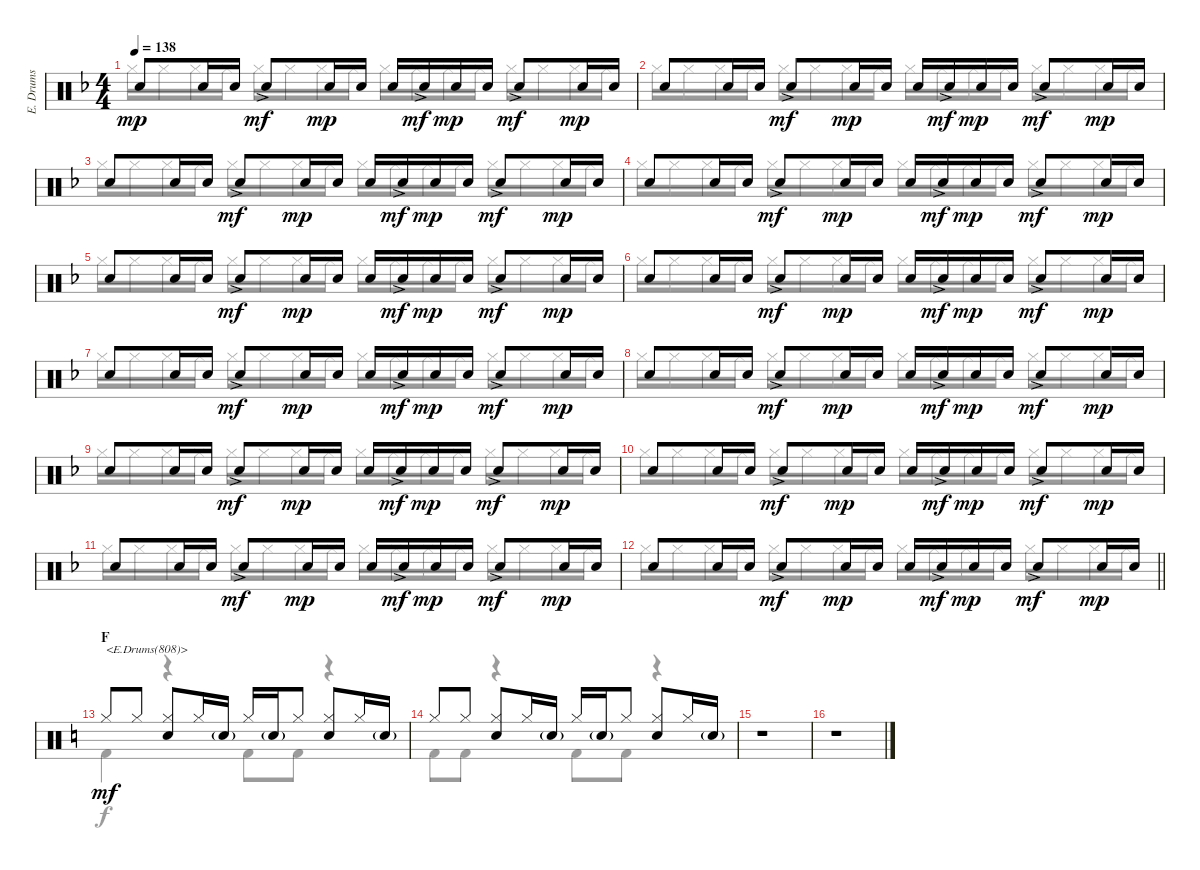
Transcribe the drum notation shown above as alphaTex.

\track ("E. Drums" "E. Drums") {instrument percussion}
\staff {score}
\articulation defaults
\voice
\ts (4 4)
\tempo 138
\clef neutral
\ks f "Electric Snare (hit)".8{dy mp} "Electric Snare (hit)".16 "Electric Snare (hit)".16 "Electric Snare (hit)"{ac}.8{dy mf} "Electric Snare (hit)".16{dy mp} "Electric Snare (hit)".16 "Electric Snare (hit)".16 "Electric Snare (hit)"{ac}.16{dy mf} "Electric Snare (hit)".16{dy mp} "Electric Snare (hit)".16 "Electric Snare (hit)"{ac}.8{dy mf} "Electric Snare (hit)".16{dy mp} "Electric Snare (hit)".16
|
"Electric Snare (hit)".8 "Electric Snare (hit)".16 "Electric Snare (hit)".16 "Electric Snare (hit)"{ac}.8{dy mf} "Electric Snare (hit)".16{dy mp} "Electric Snare (hit)".16 "Electric Snare (hit)".16 "Electric Snare (hit)"{ac}.16{dy mf} "Electric Snare (hit)".16{dy mp} "Electric Snare (hit)".16 "Electric Snare (hit)"{ac}.8{dy mf} "Electric Snare (hit)".16{dy mp} "Electric Snare (hit)".16 |
"Electric Snare (hit)".8 "Electric Snare (hit)".16 "Electric Snare (hit)".16 "Electric Snare (hit)"{ac}.8{dy mf} "Electric Snare (hit)".16{dy mp} "Electric Snare (hit)".16 "Electric Snare (hit)".16 "Electric Snare (hit)"{ac}.16{dy mf} "Electric Snare (hit)".16{dy mp} "Electric Snare (hit)".16 "Electric Snare (hit)"{ac}.8{dy mf} "Electric Snare (hit)".16{dy mp} "Electric Snare (hit)".16 |
"Electric Snare (hit)".8 "Electric Snare (hit)".16 "Electric Snare (hit)".16 "Electric Snare (hit)"{ac}.8{dy mf} "Electric Snare (hit)".16{dy mp} "Electric Snare (hit)".16 "Electric Snare (hit)".16 "Electric Snare (hit)"{ac}.16{dy mf} "Electric Snare (hit)".16{dy mp} "Electric Snare (hit)".16 "Electric Snare (hit)"{ac}.8{dy mf} "Electric Snare (hit)".16{dy mp} "Electric Snare (hit)".16 |
"Electric Snare (hit)".8 "Electric Snare (hit)".16 "Electric Snare (hit)".16 "Electric Snare (hit)"{ac}.8{dy mf} "Electric Snare (hit)".16{dy mp} "Electric Snare (hit)".16 "Electric Snare (hit)".16 "Electric Snare (hit)"{ac}.16{dy mf} "Electric Snare (hit)".16{dy mp} "Electric Snare (hit)".16 "Electric Snare (hit)"{ac}.8{dy mf} "Electric Snare (hit)".16{dy mp} "Electric Snare (hit)".16 |
"Electric Snare (hit)".8 "Electric Snare (hit)".16 "Electric Snare (hit)".16 "Electric Snare (hit)"{ac}.8{dy mf} "Electric Snare (hit)".16{dy mp} "Electric Snare (hit)".16 "Electric Snare (hit)".16 "Electric Snare (hit)"{ac}.16{dy mf} "Electric Snare (hit)".16{dy mp} "Electric Snare (hit)".16 "Electric Snare (hit)"{ac}.8{dy mf} "Electric Snare (hit)".16{dy mp} "Electric Snare (hit)".16 |
"Electric Snare (hit)".8 "Electric Snare (hit)".16 "Electric Snare (hit)".16 "Electric Snare (hit)"{ac}.8{dy mf} "Electric Snare (hit)".16{dy mp} "Electric Snare (hit)".16 "Electric Snare (hit)".16 "Electric Snare (hit)"{ac}.16{dy mf} "Electric Snare (hit)".16{dy mp} "Electric Snare (hit)".16 "Electric Snare (hit)"{ac}.8{dy mf} "Electric Snare (hit)".16{dy mp} "Electric Snare (hit)".16 |
"Electric Snare (hit)".8 "Electric Snare (hit)".16 "Electric Snare (hit)".16 "Electric Snare (hit)"{ac}.8{dy mf} "Electric Snare (hit)".16{dy mp} "Electric Snare (hit)".16 "Electric Snare (hit)".16 "Electric Snare (hit)"{ac}.16{dy mf} "Electric Snare (hit)".16{dy mp} "Electric Snare (hit)".16 "Electric Snare (hit)"{ac}.8{dy mf} "Electric Snare (hit)".16{dy mp} "Electric Snare (hit)".16 |
"Electric Snare (hit)".8 "Electric Snare (hit)".16 "Electric Snare (hit)".16 "Electric Snare (hit)"{ac}.8{dy mf} "Electric Snare (hit)".16{dy mp} "Electric Snare (hit)".16 "Electric Snare (hit)".16 "Electric Snare (hit)"{ac}.16{dy mf} "Electric Snare (hit)".16{dy mp} "Electric Snare (hit)".16 "Electric Snare (hit)"{ac}.8{dy mf} "Electric Snare (hit)".16{dy mp} "Electric Snare (hit)".16 |
"Electric Snare (hit)".8 "Electric Snare (hit)".16 "Electric Snare (hit)".16 "Electric Snare (hit)"{ac}.8{dy mf} "Electric Snare (hit)".16{dy mp} "Electric Snare (hit)".16 "Electric Snare (hit)".16 "Electric Snare (hit)"{ac}.16{dy mf} "Electric Snare (hit)".16{dy mp} "Electric Snare (hit)".16 "Electric Snare (hit)"{ac}.8{dy mf} "Electric Snare (hit)".16{dy mp} "Electric Snare (hit)".16 |
"Electric Snare (hit)".8 "Electric Snare (hit)".16 "Electric Snare (hit)".16 "Electric Snare (hit)"{ac}.8{dy mf} "Electric Snare (hit)".16{dy mp} "Electric Snare (hit)".16 "Electric Snare (hit)".16 "Electric Snare (hit)"{ac}.16{dy mf} "Electric Snare (hit)".16{dy mp} "Electric Snare (hit)".16 "Electric Snare (hit)"{ac}.8{dy mf} "Electric Snare (hit)".16{dy mp} "Electric Snare (hit)".16 |
\barLineRight lightlight "Electric Snare (hit)".8 "Electric Snare (hit)".16 "Electric Snare (hit)".16 "Electric Snare (hit)"{ac}.8{dy mf} "Electric Snare (hit)".16{dy mp} "Electric Snare (hit)".16 "Electric Snare (hit)".16 "Electric Snare (hit)"{ac}.16{dy mf} "Electric Snare (hit)".16{dy mp} "Electric Snare (hit)".16 "Electric Snare (hit)"{ac}.8{dy mf} "Electric Snare (hit)".16{dy mp} "Electric Snare (hit)".16
|
\section ("" "F")
\ks c "Hi-Hat (closed)".8{txt "<E.Drums(808)>" dy mf} "Hi-Hat (closed)".8
("Hi-Hat (closed)" "Electric Snare (hit)").8 "Hi-Hat (closed)".16 "Electric Snare (hit)"{g}.16 "Hi-Hat (closed)".16 "Electric Snare (hit)"{g}.16 "Hi-Hat (closed)".8 ("Hi-Hat (closed)" "Electric Snare (hit)").8 "Hi-Hat (closed)".16 "Electric Snare (hit)"{g}.16 |
"Hi-Hat (closed)".8 "Hi-Hat (closed)".8 ("Hi-Hat (closed)" "Electric Snare (hit)").8 "Hi-Hat (closed)".16 "Electric Snare (hit)"{g}.16 "Hi-Hat (closed)".16 "Electric Snare (hit)"{g}.16 "Hi-Hat (closed)".8 ("Hi-Hat (closed)" "Electric Snare (hit)").8 "Hi-Hat (closed)".16 "Electric Snare (hit)"{g}.16 |
r.1 |
r.1
\voice
\clef neutral
\ottava regular
\simile none
\ks f "Hi-Hat (closed)".16{dy mp} "Hi-Hat (closed)".16 "Hi-Hat (closed)".16 "Hi-Hat (closed)".16 "Hi-Hat (closed)".16 "Hi-Hat (closed)".16 "Hi-Hat (closed)".16 "Hi-Hat (closed)".16 "Hi-Hat (closed)".16 "Hi-Hat (closed)".16 "Hi-Hat (closed)".16 "Hi-Hat (closed)".16 "Hi-Hat (closed)".16 "Hi-Hat (closed)".16 "Hi-Hat (closed)".16 "Hi-Hat (closed)".16
|
"Hi-Hat (closed)".16 "Hi-Hat (closed)".16 "Hi-Hat (closed)".16 "Hi-Hat (closed)".16 "Hi-Hat (closed)".16 "Hi-Hat (closed)".16 "Hi-Hat (closed)".16 "Hi-Hat (closed)".16 "Hi-Hat (closed)".16 "Hi-Hat (closed)".16 "Hi-Hat (closed)".16 "Hi-Hat (closed)".16 "Hi-Hat (closed)".16 "Hi-Hat (closed)".16 "Hi-Hat (closed)".16 "Hi-Hat (closed)".16 |
"Hi-Hat (closed)".16 "Hi-Hat (closed)".16 "Hi-Hat (closed)".16 "Hi-Hat (closed)".16 "Hi-Hat (closed)".16 "Hi-Hat (closed)".16 "Hi-Hat (closed)".16 "Hi-Hat (closed)".16 "Hi-Hat (closed)".16 "Hi-Hat (closed)".16 "Hi-Hat (closed)".16 "Hi-Hat (closed)".16 "Hi-Hat (closed)".16 "Hi-Hat (closed)".16 "Hi-Hat (closed)".16 "Hi-Hat (closed)".16 |
"Hi-Hat (closed)".16 "Hi-Hat (closed)".16 "Hi-Hat (closed)".16 "Hi-Hat (closed)".16 "Hi-Hat (closed)".16 "Hi-Hat (closed)".16 "Hi-Hat (closed)".16 "Hi-Hat (closed)".16 "Hi-Hat (closed)".16 "Hi-Hat (closed)".16 "Hi-Hat (closed)".16 "Hi-Hat (closed)".16 "Hi-Hat (closed)".16 "Hi-Hat (closed)".16 "Hi-Hat (closed)".16 "Hi-Hat (closed)".16 |
"Hi-Hat (closed)".16 "Hi-Hat (closed)".16 "Hi-Hat (closed)".16 "Hi-Hat (closed)".16 "Hi-Hat (closed)".16 "Hi-Hat (closed)".16 "Hi-Hat (closed)".16 "Hi-Hat (closed)".16 "Hi-Hat (closed)".16 "Hi-Hat (closed)".16 "Hi-Hat (closed)".16 "Hi-Hat (closed)".16 "Hi-Hat (closed)".16 "Hi-Hat (closed)".16 "Hi-Hat (closed)".16 "Hi-Hat (closed)".16 |
"Hi-Hat (closed)".16 "Hi-Hat (closed)".16 "Hi-Hat (closed)".16 "Hi-Hat (closed)".16 "Hi-Hat (closed)".16 "Hi-Hat (closed)".16 "Hi-Hat (closed)".16 "Hi-Hat (closed)".16 "Hi-Hat (closed)".16 "Hi-Hat (closed)".16 "Hi-Hat (closed)".16 "Hi-Hat (closed)".16 "Hi-Hat (closed)".16 "Hi-Hat (closed)".16 "Hi-Hat (closed)".16 "Hi-Hat (closed)".16 |
"Hi-Hat (closed)".16 "Hi-Hat (closed)".16 "Hi-Hat (closed)".16 "Hi-Hat (closed)".16 "Hi-Hat (closed)".16 "Hi-Hat (closed)".16 "Hi-Hat (closed)".16 "Hi-Hat (closed)".16 "Hi-Hat (closed)".16 "Hi-Hat (closed)".16 "Hi-Hat (closed)".16 "Hi-Hat (closed)".16 "Hi-Hat (closed)".16 "Hi-Hat (closed)".16 "Hi-Hat (closed)".16 "Hi-Hat (closed)".16 |
"Hi-Hat (closed)".16 "Hi-Hat (closed)".16 "Hi-Hat (closed)".16 "Hi-Hat (closed)".16 "Hi-Hat (closed)".16 "Hi-Hat (closed)".16 "Hi-Hat (closed)".16 "Hi-Hat (closed)".16 "Hi-Hat (closed)".16 "Hi-Hat (closed)".16 "Hi-Hat (closed)".16 "Hi-Hat (closed)".16 "Hi-Hat (closed)".16 "Hi-Hat (closed)".16 "Hi-Hat (closed)".16 "Hi-Hat (closed)".16 |
"Hi-Hat (closed)".16 "Hi-Hat (closed)".16 "Hi-Hat (closed)".16 "Hi-Hat (closed)".16 "Hi-Hat (closed)".16 "Hi-Hat (closed)".16 "Hi-Hat (closed)".16 "Hi-Hat (closed)".16 "Hi-Hat (closed)".16 "Hi-Hat (closed)".16 "Hi-Hat (closed)".16 "Hi-Hat (closed)".16 "Hi-Hat (closed)".16 "Hi-Hat (closed)".16 "Hi-Hat (closed)".16 "Hi-Hat (closed)".16 |
"Hi-Hat (closed)".16 "Hi-Hat (closed)".16 "Hi-Hat (closed)".16 "Hi-Hat (closed)".16 "Hi-Hat (closed)".16 "Hi-Hat (closed)".16 "Hi-Hat (closed)".16 "Hi-Hat (closed)".16 "Hi-Hat (closed)".16 "Hi-Hat (closed)".16 "Hi-Hat (closed)".16 "Hi-Hat (closed)".16 "Hi-Hat (closed)".16 "Hi-Hat (closed)".16 "Hi-Hat (closed)".16 "Hi-Hat (closed)".16 |
"Hi-Hat (closed)".16 "Hi-Hat (closed)".16 "Hi-Hat (closed)".16 "Hi-Hat (closed)".16 "Hi-Hat (closed)".16 "Hi-Hat (closed)".16 "Hi-Hat (closed)".16 "Hi-Hat (closed)".16 "Hi-Hat (closed)".16 "Hi-Hat (closed)".16 "Hi-Hat (closed)".16 "Hi-Hat (closed)".16 "Hi-Hat (closed)".16 "Hi-Hat (closed)".16 "Hi-Hat (closed)".16 "Hi-Hat (closed)".16 |
\barLineRight lightlight "Hi-Hat (closed)".16 "Hi-Hat (closed)".16 "Hi-Hat (closed)".16 "Hi-Hat (closed)".16 "Hi-Hat (closed)".16 "Hi-Hat (closed)".16 "Hi-Hat (closed)".16 "Hi-Hat (closed)".16 "Hi-Hat (closed)".16 "Hi-Hat (closed)".16 "Hi-Hat (closed)".16 "Hi-Hat (closed)".16 "Hi-Hat (closed)".16 "Hi-Hat (closed)".16 "Hi-Hat (closed)".16 "Hi-Hat (closed)".16
|
\ks c "Kick (hit) 2".4{dy f}
r.4 "Kick (hit) 2".8 "Kick (hit) 2".8 r.4 |
"Kick (hit) 2".8 "Kick (hit) 2".8 r.4 "Kick (hit) 2".8 "Kick (hit) 2".8 r.4 |
r.1 |
r.1
